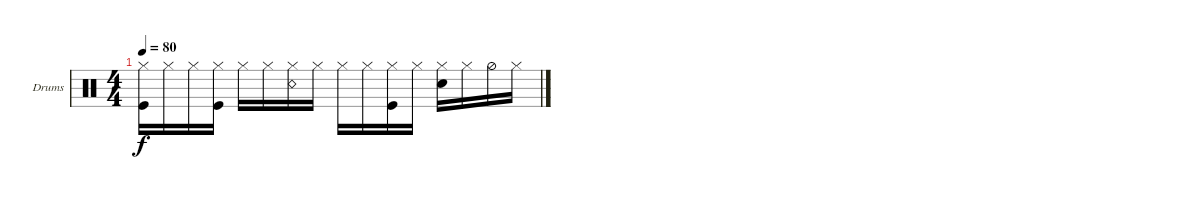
\defaultSystemsLayout 4
\bracketExtendMode groupsimilarinstruments
\firstSystemTrackNameOrientation horizontal
\otherSystemsTrackNameOrientation horizontal
\track ("Drumkit" "Drums") {instrument percussion}
\staff {score}
\articulation defaults
\ts (4 4)
\tempo 80
\clef neutral
\ks c
("Kick (hit)" "Hi-Hat (closed)").16{dy f} "Hi-Hat (closed)".16 "Hi-Hat (closed)".16 ("Kick (hit)" "Hi-Hat (closed)").16 "Hi-Hat (closed)".16 "Hi-Hat (closed)".16 ("Snare (rim shot)" "Hi-Hat (closed)").16 "Hi-Hat (closed)".16 "Hi-Hat (closed)".16 "Hi-Hat (closed)".16 ("Hi-Hat (closed)" "Kick (hit)").16 "Hi-Hat (closed)".16 ("Hi-Hat (closed)" "Snare (hit) 2").16 "Hi-Hat (closed)".16 "Hi-Hat (half)".16 "Hi-Hat (closed)".16
